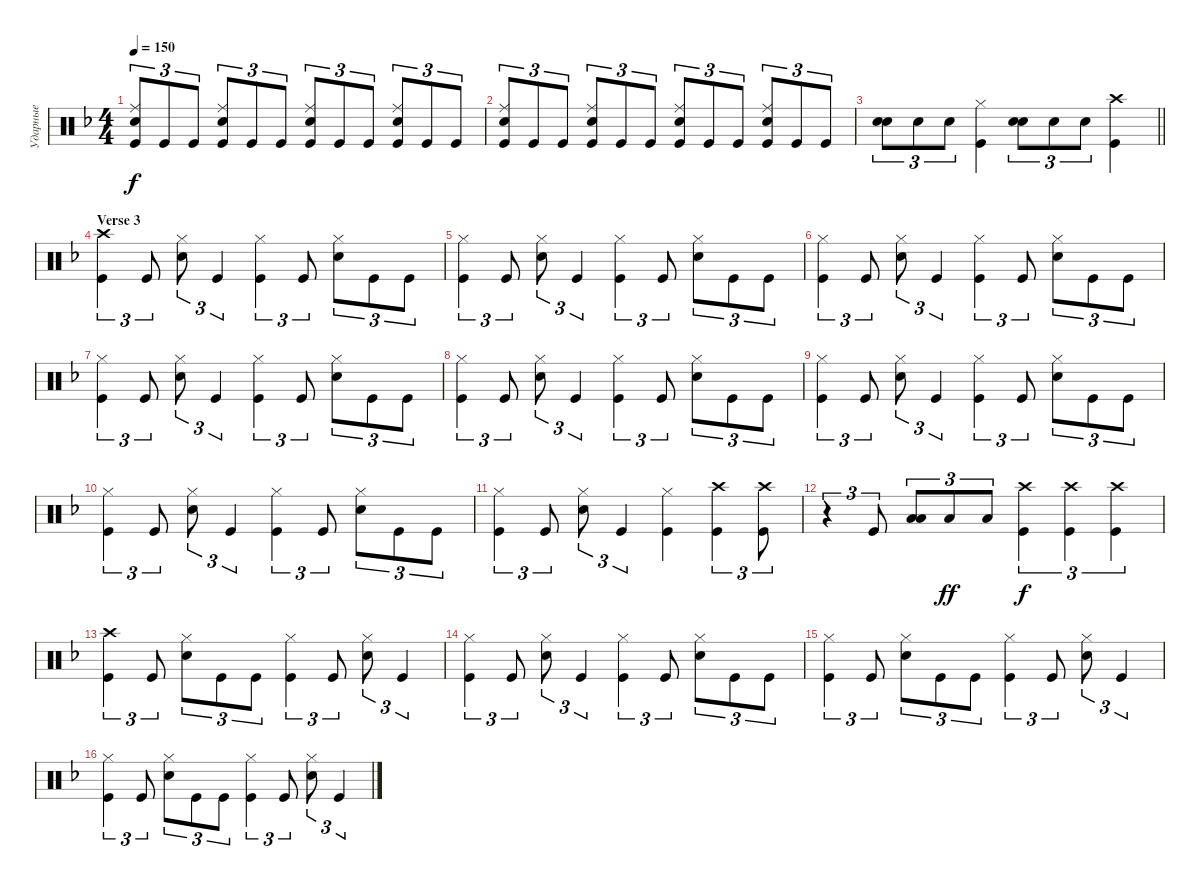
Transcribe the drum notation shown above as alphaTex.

\track ("Ударные" "Ударные") {instrument percussion}
\staff {score}
\articulation defaults
\ts (4 4)
\tempo 150
\clef neutral
\ks dminor
("Kick (hit)" "Ride (middle)" "Snare (hit) 2").8{tu (3 2) dy f} "Kick (hit)".8{tu (3 2)} "Kick (hit)".8{tu (3 2)} ("Snare (hit) 2" "Kick (hit)" "Ride (middle)").8{tu (3 2)} "Kick (hit)".8{tu (3 2)} "Kick (hit)".8{tu (3 2)} ("Kick (hit)" "Ride (middle)" "Snare (hit) 2").8{tu (3 2)} "Kick (hit)".8{tu (3 2)} "Kick (hit)".8{tu (3 2)} ("Kick (hit)" "Snare (hit) 2" "Ride (middle)").8{tu (3 2)} "Kick (hit)".8{tu (3 2)} "Kick (hit)".8{tu (3 2)} |
("Kick (hit)" "Ride (middle)" "Snare (hit) 2").8{tu (3 2)} "Kick (hit)".8{tu (3 2)} "Kick (hit)".8{tu (3 2)} ("Snare (hit) 2" "Kick (hit)" "Ride (middle)").8{tu (3 2)} "Kick (hit)".8{tu (3 2)} "Kick (hit)".8{tu (3 2)} ("Kick (hit)" "Ride (middle)" "Snare (hit) 2").8{tu (3 2)} "Kick (hit)".8{tu (3 2)} "Kick (hit)".8{tu (3 2)} ("Kick (hit)" "Snare (hit) 2" "Ride (middle)").8{tu (3 2)} "Kick (hit)".8{tu (3 2)} "Kick (hit)".8{tu (3 2)} |
\barLineRight lightlight
("Snare (hit) 2" "Snare (hit) 2").8{tu (3 2) bd 240} "Snare (hit) 2".8{tu (3 2)} "Snare (hit) 2".8{tu (3 2)} ("Kick (hit)" "Hi-Hat (closed)").4 ("Snare (hit) 2" "Snare (hit) 2").8{tu (3 2) bd 240} "Snare (hit) 2".8{tu (3 2)} "Snare (hit) 2".8{tu (3 2)} ("Kick (hit)" "Crash high (hit)").4 |
\section ("" "Verse 3")
("Kick (hit)" "Crash high (hit)").4{tu (3 2)} "Kick (hit)".8{tu (3 2)} ("Snare (hit) 2" "Hi-Hat (closed)").8{tu (3 2)} "Kick (hit)".4{tu (3 2)} ("Kick (hit)" "Hi-Hat (closed)").4{tu (3 2)} "Kick (hit)".8{tu (3 2)} ("Snare (hit) 2" "Hi-Hat (closed)").8{tu (3 2)} "Kick (hit)".8{tu (3 2)} "Kick (hit)".8{tu (3 2)} |
("Kick (hit)" "Hi-Hat (closed)").4{tu (3 2)} "Kick (hit)".8{tu (3 2)} ("Snare (hit) 2" "Hi-Hat (closed)").8{tu (3 2)} "Kick (hit)".4{tu (3 2)} ("Kick (hit)" "Hi-Hat (closed)").4{tu (3 2)} "Kick (hit)".8{tu (3 2)} ("Snare (hit) 2" "Hi-Hat (closed)").8{tu (3 2)} "Kick (hit)".8{tu (3 2)} "Kick (hit)".8{tu (3 2)} |
("Kick (hit)" "Hi-Hat (closed)").4{tu (3 2)} "Kick (hit)".8{tu (3 2)} ("Snare (hit) 2" "Hi-Hat (closed)").8{tu (3 2)} "Kick (hit)".4{tu (3 2)} ("Kick (hit)" "Hi-Hat (closed)").4{tu (3 2)} "Kick (hit)".8{tu (3 2)} ("Snare (hit) 2" "Hi-Hat (closed)").8{tu (3 2)} "Kick (hit)".8{tu (3 2)} "Kick (hit)".8{tu (3 2)} |
("Kick (hit)" "Hi-Hat (closed)").4{tu (3 2)} "Kick (hit)".8{tu (3 2)} ("Snare (hit) 2" "Hi-Hat (closed)").8{tu (3 2)} "Kick (hit)".4{tu (3 2)} ("Kick (hit)" "Hi-Hat (closed)").4{tu (3 2)} "Kick (hit)".8{tu (3 2)} ("Snare (hit) 2" "Hi-Hat (closed)").8{tu (3 2)} "Kick (hit)".8{tu (3 2)} "Kick (hit)".8{tu (3 2)} |
("Kick (hit)" "Hi-Hat (closed)").4{tu (3 2)} "Kick (hit)".8{tu (3 2)} ("Snare (hit) 2" "Hi-Hat (closed)").8{tu (3 2)} "Kick (hit)".4{tu (3 2)} ("Kick (hit)" "Hi-Hat (closed)").4{tu (3 2)} "Kick (hit)".8{tu (3 2)} ("Snare (hit) 2" "Hi-Hat (closed)").8{tu (3 2)} "Kick (hit)".8{tu (3 2)} "Kick (hit)".8{tu (3 2)} |
("Kick (hit)" "Hi-Hat (closed)").4{tu (3 2)} "Kick (hit)".8{tu (3 2)} ("Snare (hit) 2" "Hi-Hat (closed)").8{tu (3 2)} "Kick (hit)".4{tu (3 2)} ("Kick (hit)" "Hi-Hat (closed)").4{tu (3 2)} "Kick (hit)".8{tu (3 2)} ("Snare (hit) 2" "Hi-Hat (closed)").8{tu (3 2)} "Kick (hit)".8{tu (3 2)} "Kick (hit)".8{tu (3 2)} |
("Kick (hit)" "Hi-Hat (closed)").4{tu (3 2)} "Kick (hit)".8{tu (3 2)} ("Snare (hit) 2" "Hi-Hat (closed)").8{tu (3 2)} "Kick (hit)".4{tu (3 2)} ("Kick (hit)" "Hi-Hat (closed)").4{tu (3 2)} "Kick (hit)".8{tu (3 2)} ("Snare (hit) 2" "Hi-Hat (closed)").8{tu (3 2)} "Kick (hit)".8{tu (3 2)} "Kick (hit)".8{tu (3 2)} |
("Kick (hit)" "Hi-Hat (closed)").4{tu (3 2)} "Kick (hit)".8{tu (3 2)} ("Snare (hit) 2" "Hi-Hat (closed)").8{tu (3 2)} "Kick (hit)".4{tu (3 2)} ("Kick (hit)" "Hi-Hat (closed)").4 ("Kick (hit)" "Crash high (hit)").4{tu (3 2)} ("Kick (hit)" "Crash high (hit)").8{tu (3 2)} |
r.4{tu (3 2)} "Kick (hit)".8{tu (3 2)} ("Low Tom (hit)" "Low Tom (hit)").8{tu (3 2) bd 480} "Low Tom (hit)".8{tu (3 2) dy ff} "Low Tom (hit)".8{tu (3 2)} ("Kick (hit)" "Crash high (hit)").4{tu (3 2) dy f} ("Kick (hit)" "Crash high (hit)").4{tu (3 2)} ("Kick (hit)" "Crash high (hit)").4{tu (3 2)} |
("Kick (hit)" "Crash high (hit)").4{tu (3 2)} "Kick (hit)".8{tu (3 2)} ("Snare (hit) 2" "Hi-Hat (closed)").8{tu (3 2)} "Kick (hit)".8{tu (3 2)} "Kick (hit)".8{tu (3 2)} ("Kick (hit)" "Hi-Hat (closed)").4{tu (3 2)} "Kick (hit)".8{tu (3 2)} ("Snare (hit) 2" "Hi-Hat (closed)").8{tu (3 2)} "Kick (hit)".4{tu (3 2)} |
("Kick (hit)" "Hi-Hat (closed)").4{tu (3 2)} "Kick (hit)".8{tu (3 2)} ("Snare (hit) 2" "Hi-Hat (closed)").8{tu (3 2)} "Kick (hit)".4{tu (3 2)} ("Kick (hit)" "Hi-Hat (closed)").4{tu (3 2)} "Kick (hit)".8{tu (3 2)} ("Snare (hit) 2" "Hi-Hat (closed)").8{tu (3 2)} "Kick (hit)".8{tu (3 2)} "Kick (hit)".8{tu (3 2)} |
("Kick (hit)" "Hi-Hat (closed)").4{tu (3 2)} "Kick (hit)".8{tu (3 2)} ("Snare (hit) 2" "Hi-Hat (closed)").8{tu (3 2)} "Kick (hit)".8{tu (3 2)} "Kick (hit)".8{tu (3 2)} ("Kick (hit)" "Hi-Hat (closed)").4{tu (3 2)} "Kick (hit)".8{tu (3 2)} ("Snare (hit) 2" "Hi-Hat (closed)").8{tu (3 2)} "Kick (hit)".4{tu (3 2)} |
("Kick (hit)" "Hi-Hat (closed)").4{tu (3 2)} "Kick (hit)".8{tu (3 2)} ("Snare (hit) 2" "Hi-Hat (closed)").8{tu (3 2)} "Kick (hit)".8{tu (3 2)} "Kick (hit)".8{tu (3 2)} ("Kick (hit)" "Hi-Hat (closed)").4{tu (3 2)} "Kick (hit)".8{tu (3 2)} ("Snare (hit) 2" "Hi-Hat (closed)").8{tu (3 2)} "Kick (hit)".4{tu (3 2)}
